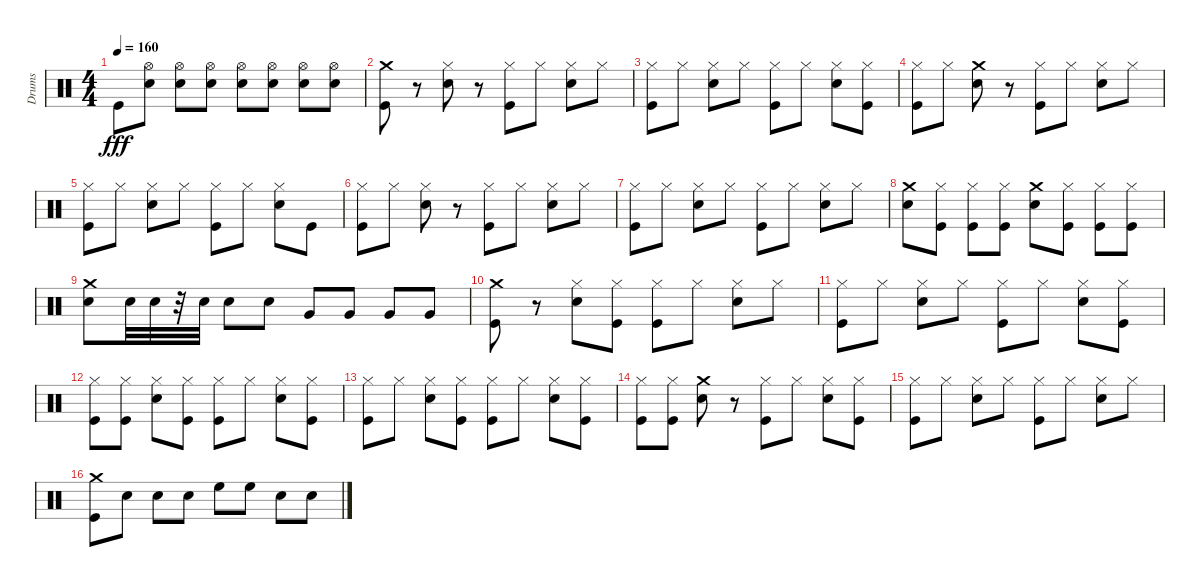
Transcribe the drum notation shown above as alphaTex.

\track ("Drums" "Drums") {instrument percussion}
\staff {score}
\articulation defaults
\ts (4 4)
\tempo 160
\clef neutral
\ks c "Kick (hit)".8{dy fff}
("Hi-Hat (open)" "Snare (hit) 2").8 ("Hi-Hat (open)" "Snare (hit) 2").8 ("Hi-Hat (open)" "Snare (hit) 2").8 ("Hi-Hat (open)" "Snare (hit) 2").8 ("Hi-Hat (open)" "Snare (hit) 2").8 ("Hi-Hat (open)" "Snare (hit) 2").8 ("Hi-Hat (open)" "Snare (hit) 2").8 |
("Crash medium (hit)" "Kick (hit)").8 r.8 ("Hi-Hat (closed)" "Snare (hit) 2").8 r.8 ("Hi-Hat (closed)" "Kick (hit)").8 "Hi-Hat (closed)".8 ("Snare (hit) 2" "Hi-Hat (closed)").8 "Hi-Hat (closed)".8 |
("Hi-Hat (closed)" "Kick (hit)").8 "Hi-Hat (closed)".8 ("Snare (hit) 2" "Hi-Hat (closed)").8 "Hi-Hat (closed)".8 ("Kick (hit)" "Hi-Hat (closed)").8 "Hi-Hat (closed)".8 ("Snare (hit) 2" "Hi-Hat (closed)").8 ("Kick (hit)" "Hi-Hat (closed)").8 |
("Hi-Hat (closed)" "Kick (hit)").8 "Hi-Hat (closed)".8 ("Crash medium (hit)" "Snare (hit) 2").8 r.8 ("Hi-Hat (closed)" "Kick (hit)").8 "Hi-Hat (closed)".8 ("Snare (hit) 2" "Hi-Hat (closed)").8 "Hi-Hat (closed)".8 |
("Hi-Hat (closed)" "Kick (hit)").8 "Hi-Hat (closed)".8 ("Snare (hit) 2" "Hi-Hat (closed)").8 "Hi-Hat (closed)".8 ("Hi-Hat (closed)" "Kick (hit)").8 "Hi-Hat (closed)".8 ("Snare (hit) 2" "Hi-Hat (closed)").8 "Kick (hit)".8 |
("Kick (hit)" "Hi-Hat (closed)").8 "Hi-Hat (closed)".8 ("Hi-Hat (closed)" "Snare (hit) 2").8 r.8 ("Kick (hit)" "Hi-Hat (closed)").8 "Hi-Hat (closed)".8 ("Snare (hit) 2" "Hi-Hat (closed)").8 "Hi-Hat (closed)".8 |
("Hi-Hat (closed)" "Kick (hit)").8 "Hi-Hat (closed)".8 ("Snare (hit) 2" "Hi-Hat (closed)").8 "Hi-Hat (closed)".8 ("Kick (hit)" "Hi-Hat (closed)").8 "Hi-Hat (closed)".8 ("Snare (hit) 2" "Hi-Hat (closed)").8 "Hi-Hat (closed)".8 |
("Crash medium (hit)" "Snare (hit) 2").8 ("Hi-Hat (closed)" "Kick (hit)").8 ("Hi-Hat (closed)" "Kick (hit)").8 ("Hi-Hat (closed)" "Kick (hit)").8 ("Crash medium (hit)" "Snare (hit) 2").8 ("Kick (hit)" "Hi-Hat (closed)").8 ("Kick (hit)" "Hi-Hat (closed)").8 ("Kick (hit)" "Hi-Hat (closed)").8 |
("Crash medium (hit)" "Snare (hit) 2").8 "Snare (hit) 2".32 "Snare (hit) 2".32 r.32 "Snare (hit) 2".32 "Snare (hit) 2".8 "Snare (hit) 2".8 "Very Low Tom (hit)".8 "Very Low Tom (hit)".8 "Very Low Tom (hit)".8 "Very Low Tom (hit)".8 |
("Crash medium (hit)" "Kick (hit)").8 r.8 ("Hi-Hat (closed)" "Snare (hit) 2").8 ("Kick (hit)" "Hi-Hat (closed)").8 ("Kick (hit)" "Hi-Hat (closed)").8 "Hi-Hat (closed)".8 ("Snare (hit) 2" "Hi-Hat (closed)").8 "Hi-Hat (closed)".8 |
("Hi-Hat (closed)" "Kick (hit)").8 "Hi-Hat (closed)".8 ("Snare (hit) 2" "Hi-Hat (closed)").8 "Hi-Hat (closed)".8 ("Hi-Hat (closed)" "Kick (hit)").8 "Hi-Hat (closed)".8 ("Snare (hit) 2" "Hi-Hat (closed)").8 ("Kick (hit)" "Hi-Hat (closed)").8 |
("Hi-Hat (closed)" "Kick (hit)").8 ("Hi-Hat (closed)" "Kick (hit)").8 ("Snare (hit) 2" "Hi-Hat (closed)").8 ("Hi-Hat (closed)" "Kick (hit)").8 ("Hi-Hat (closed)" "Kick (hit)").8 "Hi-Hat (closed)".8 ("Snare (hit) 2" "Hi-Hat (closed)").8 ("Kick (hit)" "Hi-Hat (closed)").8 |
("Hi-Hat (closed)" "Kick (hit)").8 "Hi-Hat (closed)".8 ("Snare (hit) 2" "Hi-Hat (closed)").8 ("Kick (hit)" "Hi-Hat (closed)").8 ("Hi-Hat (closed)" "Kick (hit)").8 "Hi-Hat (closed)".8 ("Snare (hit) 2" "Hi-Hat (closed)").8 ("Kick (hit)" "Hi-Hat (closed)").8 |
("Hi-Hat (closed)" "Kick (hit)").8 ("Hi-Hat (closed)" "Kick (hit)").8 ("Crash medium (hit)" "Snare (hit) 2").8 r.8 ("Hi-Hat (closed)" "Kick (hit)").8 "Hi-Hat (closed)".8 ("Snare (hit) 2" "Hi-Hat (closed)").8 ("Kick (hit)" "Hi-Hat (closed)").8 |
("Hi-Hat (closed)" "Kick (hit)").8 "Hi-Hat (closed)".8 ("Snare (hit) 2" "Hi-Hat (closed)").8 "Hi-Hat (closed)".8 ("Hi-Hat (closed)" "Kick (hit)").8 "Hi-Hat (closed)".8 ("Snare (hit) 2" "Hi-Hat (closed)").8 "Hi-Hat (closed)".8 |
("Crash medium (hit)" "Kick (hit)").8 "Snare (hit) 2".8 "Snare (hit) 2".8 "Snare (hit) 2".8 "High Floor Tom (hit)".8 "High Floor Tom (hit)".8 "Snare (hit) 2".8 "Snare (hit) 2".8
